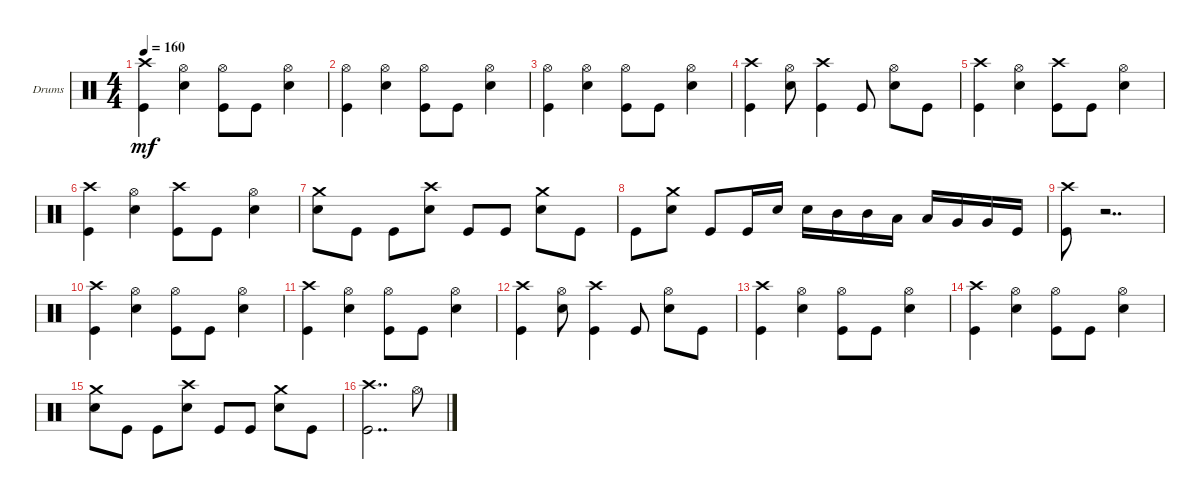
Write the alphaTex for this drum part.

\defaultSystemsLayout 4
\bracketExtendMode groupsimilarinstruments
\firstSystemTrackNameOrientation horizontal
\otherSystemsTrackNameOrientation horizontal
\track ("Drumkit" "Drums") {instrument percussion}
\staff {score}
\articulation defaults
\ts (4 4)
\tempo 160
\clef neutral
\scale
0.333333
\ks c
("Crash high (hit)" "Kick (hit)").4{dy mf} ("Snare (hit) 2" "Hi-Hat (open)").4 ("Kick (hit)" "Hi-Hat (open)").8 "Kick (hit)".8 ("Snare (hit) 2" "Hi-Hat (open)").4 |
\scale
0.333333 ("Kick (hit)" "Hi-Hat (open)").4 ("Snare (hit) 2" "Hi-Hat (open)").4 ("Kick (hit)" "Hi-Hat (open)").8 "Kick (hit)".8 ("Snare (hit) 2" "Hi-Hat (open)").4 |
\scale
0.333333 ("Kick (hit)" "Hi-Hat (open)").4 ("Snare (hit) 2" "Hi-Hat (open)").4 ("Kick (hit)" "Hi-Hat (open)").8 "Kick (hit)".8 ("Snare (hit) 2" "Hi-Hat (open)").4 |
\scale
0.333333 ("Kick (hit)" "Crash high (hit)").4 ("Snare (hit) 2" "Hi-Hat (open)").8 ("Kick (hit)" "Crash high (hit)").4 "Kick (hit)".8 ("Snare (hit) 2" "Hi-Hat (open)").8 "Kick (hit)".8 |
\scale
0.333333 ("Crash high (hit)" "Kick (hit)").4 ("Snare (hit) 2" "Hi-Hat (open)").4 ("Kick (hit)" "Crash high (hit)").8 "Kick (hit)".8 ("Snare (hit) 2" "Hi-Hat (open)").4 |
\scale
0.333333 ("Crash high (hit)" "Kick (hit)").4 ("Snare (hit) 2" "Hi-Hat (open)").4 ("Kick (hit)" "Crash high (hit)").8 "Kick (hit)".8 ("Snare (hit) 2" "Hi-Hat (open)").4 |
\scale
0.333333 ("Snare (hit) 2" "Crash medium (hit)").8 "Kick (hit)".8 "Kick (hit)".8 ("Snare (hit) 2" "Crash high (hit)").8 "Kick (hit)".8 "Kick (hit)".8 ("Snare (hit) 2" "Crash medium (hit)").8 "Kick (hit)".8 |
\scale
0.333333 "Kick (hit)".8 ("Snare (hit) 2" "Crash medium (hit)").8 "Kick (hit)".8 "Kick (hit)".16 "Snare (hit) 2".16 "Snare (hit) 2".16 "Mid Tom (hit)".16 "Mid Tom (hit)".16 "Low Tom (hit)".16 "Low Tom (hit)".16 "Very Low Tom (hit)".16 "Very Low Tom (hit)".16 "Kick (hit)".16 |
\scale
0.333333 ("Crash high (hit)" "Kick (hit)").8 r.2{dd} |
\scale
0.333333 ("Crash high (hit)" "Kick (hit)").4 ("Snare (hit) 2" "Hi-Hat (open)").4 ("Kick (hit)" "Hi-Hat (open)").8 "Kick (hit)".8 ("Snare (hit) 2" "Hi-Hat (open)").4 |
\scale
0.333333 ("Crash high (hit)" "Kick (hit)").4 ("Snare (hit) 2" "Hi-Hat (open)").4 ("Kick (hit)" "Hi-Hat (open)").8 "Kick (hit)".8 ("Snare (hit) 2" "Hi-Hat (open)").4 |
\scale
0.333333 ("Kick (hit)" "Crash high (hit)").4 ("Snare (hit) 2" "Hi-Hat (open)").8 ("Kick (hit)" "Crash high (hit)").4 "Kick (hit)".8 ("Snare (hit) 2" "Hi-Hat (open)").8 "Kick (hit)".8 |
\scale
0.333333 ("Crash high (hit)" "Kick (hit)").4 ("Snare (hit) 2" "Hi-Hat (open)").4 ("Kick (hit)" "Hi-Hat (open)").8 "Kick (hit)".8 ("Snare (hit) 2" "Hi-Hat (open)").4 |
\scale
0.333333 ("Crash high (hit)" "Kick (hit)").4 ("Snare (hit) 2" "Hi-Hat (open)").4 ("Kick (hit)" "Hi-Hat (open)").8 "Kick (hit)".8 ("Snare (hit) 2" "Hi-Hat (open)").4 |
\scale
0.333333 ("Snare (hit) 2" "Crash medium (hit)").8 "Kick (hit)".8 "Kick (hit)".8 ("Snare (hit) 2" "Crash high (hit)").8 "Kick (hit)".8 "Kick (hit)".8 ("Snare (hit) 2" "Crash medium (hit)").8 "Kick (hit)".8 |
\scale
0.333333 ("Crash high (hit)" "Kick (hit)").2{dd} "Hi-Hat (open)".8
